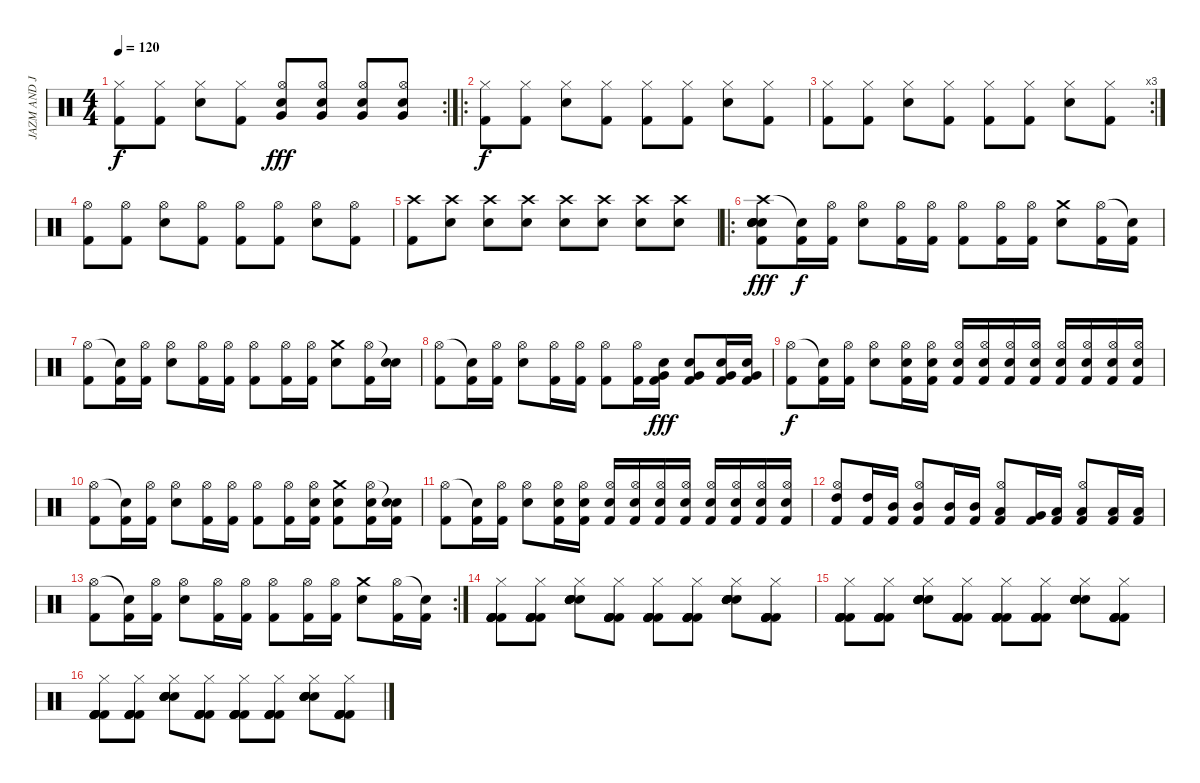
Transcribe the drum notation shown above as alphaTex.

\track ("JAZM AND JOKER" "JAZM AND J") {instrument percussion}
\staff {score}
\articulation defaults
\rc 2
\ts (4 4)
\tempo 120
\clef neutral
\ks c
("Hi-Hat (closed)" "Kick (hit) 2").8{dy f} ("Hi-Hat (closed)" "Kick (hit) 2").8 ("Hi-Hat (closed)" "Snare (hit) 2").8 ("Hi-Hat (closed)" "Kick (hit) 2").8 ("Hi-Hat (open)" "Very Low Tom (hit)" "Snare (hit) 2").8{dy fff} ("Hi-Hat (open)" "Very Low Tom (hit)" "Snare (hit) 2").8 ("Hi-Hat (open)" "Very Low Tom (hit)" "Snare (hit) 2").8 ("Hi-Hat (open)" "Very Low Tom (hit)" "Snare (hit) 2").8 |
\ro
("Hi-Hat (closed)" "Kick (hit) 2").8{dy f} ("Hi-Hat (closed)" "Kick (hit) 2").8 ("Hi-Hat (closed)" "Snare (hit) 2").8 ("Hi-Hat (closed)" "Kick (hit) 2").8 ("Hi-Hat (closed)" "Kick (hit) 2").8 ("Hi-Hat (closed)" "Kick (hit) 2").8 ("Hi-Hat (closed)" "Snare (hit) 2").8 ("Hi-Hat (closed)" "Kick (hit) 2").8 |
\rc 3
("Hi-Hat (closed)" "Kick (hit) 2").8 ("Hi-Hat (closed)" "Kick (hit) 2").8 ("Hi-Hat (closed)" "Snare (hit) 2").8 ("Hi-Hat (closed)" "Kick (hit) 2").8 ("Hi-Hat (closed)" "Kick (hit) 2").8 ("Hi-Hat (closed)" "Kick (hit) 2").8 ("Hi-Hat (closed)" "Snare (hit) 2").8 ("Hi-Hat (closed)" "Kick (hit) 2").8 |
("Hi-Hat (open)" "Kick (hit) 2").8 ("Hi-Hat (open)" "Kick (hit) 2").8 ("Hi-Hat (open)" "Snare (hit) 2").8 ("Hi-Hat (open)" "Kick (hit) 2").8 ("Hi-Hat (open)" "Kick (hit) 2").8 ("Hi-Hat (open)" "Kick (hit) 2").8 ("Hi-Hat (open)" "Snare (hit) 2").8 ("Hi-Hat (open)" "Kick (hit) 2").8 |
("Crash high (hit)" "Kick (hit) 2").8 ("Crash high (hit)" "Snare (hit) 2").8 ("Crash high (hit)" "Snare (hit) 2").8 ("Crash high (hit)" "Snare (hit) 2").8 ("Crash high (hit)" "Snare (hit) 2").8 ("Crash high (hit)" "Snare (hit) 2").8 ("Crash high (hit)" "Snare (hit) 2").8 ("Crash high (hit)" "Snare (hit) 2").8 |
\ro
("Crash high (hit)" "Electric Snare (hit)" "Electric Snare (hit)" "Electric Snare (hit)" "Electric Snare (hit)" "Kick (hit) 2").8{dy fff} ("Snare (hit)"{t} "Kick (hit) 2").16{dy f} ("Hi-Hat (open)" "Kick (hit) 2").16 ("Hi-Hat (open)" "Electric Snare (hit)").8 ("Hi-Hat (open)" "Kick (hit) 2").16 ("Hi-Hat (open)" "Kick (hit) 2").16 ("Hi-Hat (open)" "Kick (hit) 2").8 ("Hi-Hat (open)" "Kick (hit) 2").16 ("Hi-Hat (open)" "Kick (hit) 2").16 ("Crash medium (hit)" "Electric Snare (hit)").8 ("Hi-Hat (open)" "Kick (hit) 2").16 ("Snare (hit)"{t} "Kick (hit) 2").16 |
("Hi-Hat (open)" "Kick (hit) 2").8 ("Snare (hit)"{t} "Kick (hit) 2").16 ("Hi-Hat (open)" "Kick (hit) 2").16 ("Hi-Hat (open)" "Electric Snare (hit)").8 ("Hi-Hat (open)" "Kick (hit) 2").16 ("Hi-Hat (open)" "Kick (hit) 2").16 ("Hi-Hat (open)" "Kick (hit) 2").8 ("Hi-Hat (open)" "Kick (hit) 2").16 ("Hi-Hat (open)" "Kick (hit) 2").16 ("Crash medium (hit)" "Electric Snare (hit)").8 ("Hi-Hat (open)" "Kick (hit) 2").16 ("Snare (hit)"{t} "Electric Snare (hit)").16 |
("Hi-Hat (open)" "Kick (hit) 2").8 ("Snare (hit)"{t} "Kick (hit) 2").16 ("Hi-Hat (open)" "Kick (hit) 2").16 ("Hi-Hat (open)" "Electric Snare (hit)").8 ("Hi-Hat (open)" "Kick (hit) 2").16 ("Hi-Hat (open)" "Kick (hit) 2").16 ("Hi-Hat (open)" "Kick (hit) 2").8 ("Hi-Hat (open)" "Kick (hit) 2").16 ("Very Low Tom (hit)" "Kick (hit) 2" "Electric Snare (hit)").16{dy fff} ("Very Low Tom (hit)" "Kick (hit) 2" "Electric Snare (hit)").8 ("Very Low Tom (hit)" "Kick (hit) 2" "Electric Snare (hit)").16 ("Very Low Tom (hit)" "Kick (hit) 2" "Electric Snare (hit)").16 |
("Hi-Hat (open)" "Kick (hit) 2").8{dy f} ("Snare (hit)"{t} "Kick (hit) 2").16 ("Hi-Hat (open)" "Kick (hit) 2").16 ("Hi-Hat (open)" "Electric Snare (hit)").8 ("Hi-Hat (open)" "Kick (hit) 2" "Electric Snare (hit)").16 ("Hi-Hat (open)" "Kick (hit) 2" "Electric Snare (hit)").16 ("Hi-Hat (open)" "Kick (hit) 2" "Electric Snare (hit)").16 ("Hi-Hat (open)" "Kick (hit) 2" "Electric Snare (hit)").16 ("Hi-Hat (open)" "Kick (hit) 2" "Electric Snare (hit)").16 ("Hi-Hat (open)" "Kick (hit) 2" "Electric Snare (hit)").16 ("Hi-Hat (open)" "Kick (hit) 2" "Electric Snare (hit)").16 ("Hi-Hat (open)" "Kick (hit) 2" "Electric Snare (hit)").16 ("Hi-Hat (open)" "Kick (hit) 2" "Electric Snare (hit)").16 ("Hi-Hat (open)" "Kick (hit) 2" "Electric Snare (hit)").16 |
("Hi-Hat (open)" "Kick (hit) 2").8 ("Snare (hit)"{t} "Kick (hit) 2").16 ("Hi-Hat (open)" "Kick (hit) 2").16 ("Hi-Hat (open)" "Electric Snare (hit)").8 ("Hi-Hat (open)" "Kick (hit) 2").16 ("Hi-Hat (open)" "Kick (hit) 2").16 ("Hi-Hat (open)" "Kick (hit) 2").8 ("Hi-Hat (open)" "Kick (hit) 2").16 ("Hi-Hat (open)" "Kick (hit) 2" "Electric Snare (hit)").16 ("Crash medium (hit)" "Kick (hit) 2" "Electric Snare (hit)").8 ("Hi-Hat (open)" "Kick (hit) 2" "Electric Snare (hit)").16 ("Snare (hit)"{t} "Kick (hit) 2" "Electric Snare (hit)").16 |
("Hi-Hat (open)" "Kick (hit) 2").8 ("Snare (hit)"{t} "Kick (hit) 2").16 ("Hi-Hat (open)" "Kick (hit) 2").16 ("Hi-Hat (open)" "Electric Snare (hit)").8 ("Hi-Hat (open)" "Kick (hit) 2" "Electric Snare (hit)").16 ("Hi-Hat (open)" "Kick (hit) 2" "Electric Snare (hit)").16 ("Hi-Hat (open)" "Kick (hit) 2" "Electric Snare (hit)").16 ("Hi-Hat (open)" "Kick (hit) 2" "Electric Snare (hit)").16 ("Hi-Hat (open)" "Kick (hit) 2" "Electric Snare (hit)").16 ("Hi-Hat (open)" "Kick (hit) 2" "Electric Snare (hit)").16 ("Hi-Hat (open)" "Kick (hit) 2" "Electric Snare (hit)").16 ("Hi-Hat (open)" "Kick (hit) 2" "Electric Snare (hit)").16 ("Hi-Hat (open)" "Kick (hit) 2" "Electric Snare (hit)").16 ("Hi-Hat (open)" "Kick (hit) 2" "Electric Snare (hit)").16 |
("High Tom (hit)" "Hi-Hat (open)" "Kick (hit) 2").8 ("High Tom (hit)" "Kick (hit) 2").16 ("Mid Tom (hit)" "Kick (hit) 2").16 ("Mid Tom (hit)" "Hi-Hat (open)" "Kick (hit) 2").8 ("Mid Tom (hit)" "Kick (hit) 2").16 ("Mid Tom (hit)" "Kick (hit) 2").16 ("Low Tom (hit)" "Hi-Hat (open)" "Kick (hit) 2").8 ("Very Low Tom (hit)" "Kick (hit) 2").16 ("Low Floor Tom (hit)" "Kick (hit) 2").16 ("Low Floor Tom (hit)" "Hi-Hat (open)" "Kick (hit) 2").8 ("Low Floor Tom (hit)" "Kick (hit) 2").16 ("Low Floor Tom (hit)" "Kick (hit) 2").16 |
\rc 2
("Hi-Hat (open)" "Kick (hit) 2").8 ("Snare (hit)"{t} "Kick (hit) 2").16 ("Hi-Hat (open)" "Kick (hit) 2").16 ("Hi-Hat (open)" "Electric Snare (hit)").8 ("Hi-Hat (open)" "Kick (hit) 2").16 ("Hi-Hat (open)" "Kick (hit) 2").16 ("Hi-Hat (open)" "Kick (hit) 2").8 ("Hi-Hat (open)" "Kick (hit) 2").16 ("Hi-Hat (open)" "Kick (hit) 2").16 ("Crash medium (hit)" "Electric Snare (hit)").8 ("Hi-Hat (open)" "Kick (hit) 2").16 ("Snare (hit)"{t} "Kick (hit) 2").16 |
("Hi-Hat (closed)" "Kick (hit) 2" "Kick (hit) 2" "Kick (hit) 2" "Kick (hit) 2" "Kick (hit) 2").8 ("Hi-Hat (closed)" "Kick (hit) 2" "Kick (hit) 2" "Kick (hit) 2" "Kick (hit) 2" "Kick (hit) 2").8 ("Hi-Hat (closed)" "Snare (hit) 2" "Snare (hit) 2" "Snare (hit) 2" "Snare (hit) 2" "Snare (hit) 2").8 ("Hi-Hat (closed)" "Kick (hit) 2" "Kick (hit) 2" "Kick (hit) 2" "Kick (hit) 2" "Kick (hit) 2").8 ("Hi-Hat (closed)" "Kick (hit) 2" "Kick (hit) 2" "Kick (hit) 2" "Kick (hit) 2" "Kick (hit) 2").8 ("Hi-Hat (closed)" "Kick (hit) 2" "Kick (hit) 2" "Kick (hit) 2" "Kick (hit) 2" "Kick (hit) 2").8 ("Hi-Hat (closed)" "Snare (hit) 2" "Snare (hit) 2" "Snare (hit) 2" "Snare (hit) 2" "Snare (hit) 2").8 ("Hi-Hat (closed)" "Kick (hit) 2" "Kick (hit) 2" "Kick (hit) 2" "Kick (hit) 2" "Kick (hit) 2").8 |
("Hi-Hat (closed)" "Kick (hit) 2" "Kick (hit) 2" "Kick (hit) 2" "Kick (hit) 2" "Kick (hit) 2").8 ("Hi-Hat (closed)" "Kick (hit) 2" "Kick (hit) 2" "Kick (hit) 2" "Kick (hit) 2" "Kick (hit) 2").8 ("Hi-Hat (closed)" "Snare (hit) 2" "Snare (hit) 2" "Snare (hit) 2" "Snare (hit) 2" "Snare (hit) 2").8 ("Hi-Hat (closed)" "Kick (hit) 2" "Kick (hit) 2" "Kick (hit) 2" "Kick (hit) 2" "Kick (hit) 2").8 ("Hi-Hat (closed)" "Kick (hit) 2" "Kick (hit) 2" "Kick (hit) 2" "Kick (hit) 2" "Kick (hit) 2").8 ("Hi-Hat (closed)" "Kick (hit) 2" "Kick (hit) 2" "Kick (hit) 2" "Kick (hit) 2" "Kick (hit) 2").8 ("Hi-Hat (closed)" "Snare (hit) 2" "Snare (hit) 2" "Snare (hit) 2" "Snare (hit) 2" "Snare (hit) 2").8 ("Hi-Hat (closed)" "Kick (hit) 2" "Kick (hit) 2" "Kick (hit) 2" "Kick (hit) 2" "Kick (hit) 2").8 |
("Hi-Hat (closed)" "Kick (hit) 2" "Kick (hit) 2" "Kick (hit) 2" "Kick (hit) 2" "Kick (hit) 2").8 ("Hi-Hat (closed)" "Kick (hit) 2" "Kick (hit) 2" "Kick (hit) 2" "Kick (hit) 2" "Kick (hit) 2").8 ("Hi-Hat (closed)" "Snare (hit) 2" "Snare (hit) 2" "Snare (hit) 2" "Snare (hit) 2" "Snare (hit) 2").8 ("Hi-Hat (closed)" "Kick (hit) 2" "Kick (hit) 2" "Kick (hit) 2" "Kick (hit) 2" "Kick (hit) 2").8 ("Hi-Hat (closed)" "Kick (hit) 2" "Kick (hit) 2" "Kick (hit) 2" "Kick (hit) 2" "Kick (hit) 2").8 ("Hi-Hat (closed)" "Kick (hit) 2" "Kick (hit) 2" "Kick (hit) 2" "Kick (hit) 2" "Kick (hit) 2").8 ("Hi-Hat (closed)" "Snare (hit) 2" "Snare (hit) 2" "Snare (hit) 2" "Snare (hit) 2" "Snare (hit) 2").8 ("Hi-Hat (closed)" "Kick (hit) 2" "Kick (hit) 2" "Kick (hit) 2" "Kick (hit) 2" "Kick (hit) 2").8
